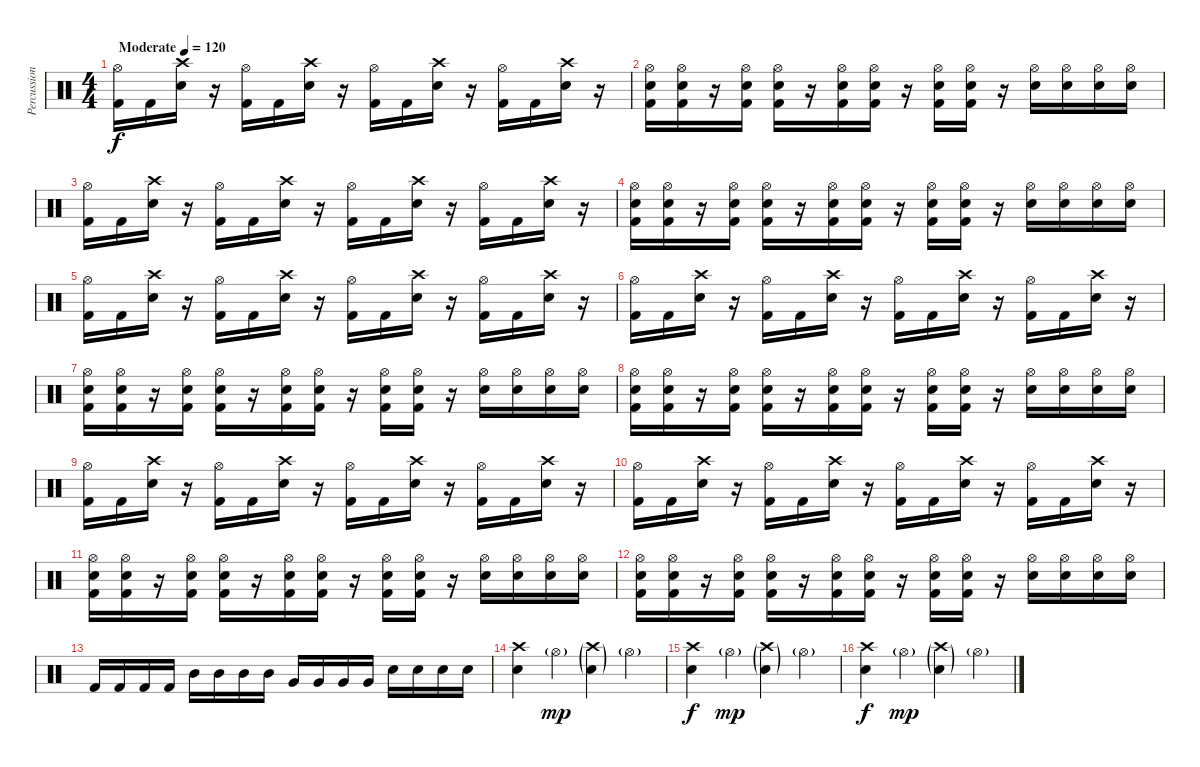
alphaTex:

\track ("Percussion" "Percussion") {instrument percussion}
\staff {score}
\articulation defaults
\ts (4 4)
\tempo (120 "Moderate")
\clef neutral
\ks c
("Hi-Hat (open)" "Kick (hit) 2").16{dy f} "Kick (hit) 2".16 ("Crash high (hit)" "Electric Snare (hit)").16 r.16 ("Hi-Hat (open)" "Kick (hit) 2").16 "Kick (hit) 2".16 ("Crash high (hit)" "Electric Snare (hit)").16 r.16 ("Hi-Hat (open)" "Kick (hit) 2").16 "Kick (hit) 2".16 ("Crash high (hit)" "Electric Snare (hit)").16 r.16 ("Hi-Hat (open)" "Kick (hit) 2").16 "Kick (hit) 2".16 ("Crash high (hit)" "Electric Snare (hit)").16 r.16 |
("Hi-Hat (open)" "Electric Snare (hit)" "Kick (hit) 2").16 ("Hi-Hat (open)" "Electric Snare (hit)" "Kick (hit) 2").16 r.16 ("Hi-Hat (open)" "Electric Snare (hit)" "Kick (hit) 2").16 ("Hi-Hat (open)" "Electric Snare (hit)" "Kick (hit) 2").16 r.16 ("Hi-Hat (open)" "Electric Snare (hit)" "Kick (hit) 2").16 ("Hi-Hat (open)" "Electric Snare (hit)" "Kick (hit) 2").16 r.16 ("Hi-Hat (open)" "Electric Snare (hit)" "Kick (hit) 2").16 ("Hi-Hat (open)" "Electric Snare (hit)" "Kick (hit) 2").16 r.16 ("Hi-Hat (open)" "Electric Snare (hit)").16 ("Hi-Hat (open)" "Electric Snare (hit)").16 ("Hi-Hat (open)" "Electric Snare (hit)").16 ("Hi-Hat (open)" "Electric Snare (hit)").16 |
("Hi-Hat (open)" "Kick (hit) 2").16 "Kick (hit) 2".16 ("Crash high (hit)" "Electric Snare (hit)").16 r.16 ("Hi-Hat (open)" "Kick (hit) 2").16 "Kick (hit) 2".16 ("Crash high (hit)" "Electric Snare (hit)").16 r.16 ("Hi-Hat (open)" "Kick (hit) 2").16 "Kick (hit) 2".16 ("Crash high (hit)" "Electric Snare (hit)").16 r.16 ("Hi-Hat (open)" "Kick (hit) 2").16 "Kick (hit) 2".16 ("Crash high (hit)" "Electric Snare (hit)").16 r.16 |
("Hi-Hat (open)" "Electric Snare (hit)" "Kick (hit) 2").16 ("Hi-Hat (open)" "Electric Snare (hit)" "Kick (hit) 2").16 r.16 ("Hi-Hat (open)" "Electric Snare (hit)" "Kick (hit) 2").16 ("Hi-Hat (open)" "Electric Snare (hit)" "Kick (hit) 2").16 r.16 ("Hi-Hat (open)" "Electric Snare (hit)" "Kick (hit) 2").16 ("Hi-Hat (open)" "Electric Snare (hit)" "Kick (hit) 2").16 r.16 ("Hi-Hat (open)" "Electric Snare (hit)" "Kick (hit) 2").16 ("Hi-Hat (open)" "Electric Snare (hit)" "Kick (hit) 2").16 r.16 ("Hi-Hat (open)" "Electric Snare (hit)").16 ("Hi-Hat (open)" "Electric Snare (hit)").16 ("Hi-Hat (open)" "Electric Snare (hit)").16 ("Hi-Hat (open)" "Electric Snare (hit)").16 |
("Hi-Hat (open)" "Kick (hit) 2").16 "Kick (hit) 2".16 ("Crash high (hit)" "Electric Snare (hit)").16 r.16 ("Hi-Hat (open)" "Kick (hit) 2").16 "Kick (hit) 2".16 ("Crash high (hit)" "Electric Snare (hit)").16 r.16 ("Hi-Hat (open)" "Kick (hit) 2").16 "Kick (hit) 2".16 ("Crash high (hit)" "Electric Snare (hit)").16 r.16 ("Hi-Hat (open)" "Kick (hit) 2").16 "Kick (hit) 2".16 ("Crash high (hit)" "Electric Snare (hit)").16 r.16 |
("Hi-Hat (open)" "Kick (hit) 2").16 "Kick (hit) 2".16 ("Crash high (hit)" "Electric Snare (hit)").16 r.16 ("Hi-Hat (open)" "Kick (hit) 2").16 "Kick (hit) 2".16 ("Crash high (hit)" "Electric Snare (hit)").16 r.16 ("Hi-Hat (open)" "Kick (hit) 2").16 "Kick (hit) 2".16 ("Crash high (hit)" "Electric Snare (hit)").16 r.16 ("Hi-Hat (open)" "Kick (hit) 2").16 "Kick (hit) 2".16 ("Crash high (hit)" "Electric Snare (hit)").16 r.16 |
("Hi-Hat (open)" "Electric Snare (hit)" "Kick (hit) 2").16 ("Hi-Hat (open)" "Electric Snare (hit)" "Kick (hit) 2").16 r.16 ("Hi-Hat (open)" "Electric Snare (hit)" "Kick (hit) 2").16 ("Hi-Hat (open)" "Electric Snare (hit)" "Kick (hit) 2").16 r.16 ("Hi-Hat (open)" "Electric Snare (hit)" "Kick (hit) 2").16 ("Hi-Hat (open)" "Electric Snare (hit)" "Kick (hit) 2").16 r.16 ("Hi-Hat (open)" "Electric Snare (hit)" "Kick (hit) 2").16 ("Hi-Hat (open)" "Electric Snare (hit)" "Kick (hit) 2").16 r.16 ("Hi-Hat (open)" "Electric Snare (hit)").16 ("Hi-Hat (open)" "Electric Snare (hit)").16 ("Hi-Hat (open)" "Electric Snare (hit)").16 ("Hi-Hat (open)" "Electric Snare (hit)").16 |
("Hi-Hat (open)" "Electric Snare (hit)" "Kick (hit) 2").16 ("Hi-Hat (open)" "Electric Snare (hit)" "Kick (hit) 2").16 r.16 ("Hi-Hat (open)" "Electric Snare (hit)" "Kick (hit) 2").16 ("Hi-Hat (open)" "Electric Snare (hit)" "Kick (hit) 2").16 r.16 ("Hi-Hat (open)" "Electric Snare (hit)" "Kick (hit) 2").16 ("Hi-Hat (open)" "Electric Snare (hit)" "Kick (hit) 2").16 r.16 ("Hi-Hat (open)" "Electric Snare (hit)" "Kick (hit) 2").16 ("Hi-Hat (open)" "Electric Snare (hit)" "Kick (hit) 2").16 r.16 ("Hi-Hat (open)" "Electric Snare (hit)").16 ("Hi-Hat (open)" "Electric Snare (hit)").16 ("Hi-Hat (open)" "Electric Snare (hit)").16 ("Hi-Hat (open)" "Electric Snare (hit)").16 |
("Hi-Hat (open)" "Kick (hit) 2").16 "Kick (hit) 2".16 ("Crash high (hit)" "Electric Snare (hit)").16 r.16 ("Hi-Hat (open)" "Kick (hit) 2").16 "Kick (hit) 2".16 ("Crash high (hit)" "Electric Snare (hit)").16 r.16 ("Hi-Hat (open)" "Kick (hit) 2").16 "Kick (hit) 2".16 ("Crash high (hit)" "Electric Snare (hit)").16 r.16 ("Hi-Hat (open)" "Kick (hit) 2").16 "Kick (hit) 2".16 ("Crash high (hit)" "Electric Snare (hit)").16 r.16 |
("Hi-Hat (open)" "Kick (hit) 2").16 "Kick (hit) 2".16 ("Crash high (hit)" "Electric Snare (hit)").16 r.16 ("Hi-Hat (open)" "Kick (hit) 2").16 "Kick (hit) 2".16 ("Crash high (hit)" "Electric Snare (hit)").16 r.16 ("Hi-Hat (open)" "Kick (hit) 2").16 "Kick (hit) 2".16 ("Crash high (hit)" "Electric Snare (hit)").16 r.16 ("Hi-Hat (open)" "Kick (hit) 2").16 "Kick (hit) 2".16 ("Crash high (hit)" "Electric Snare (hit)").16 r.16 |
("Hi-Hat (open)" "Electric Snare (hit)" "Kick (hit) 2").16 ("Hi-Hat (open)" "Electric Snare (hit)" "Kick (hit) 2").16 r.16 ("Hi-Hat (open)" "Electric Snare (hit)" "Kick (hit) 2").16 ("Hi-Hat (open)" "Electric Snare (hit)" "Kick (hit) 2").16 r.16 ("Hi-Hat (open)" "Electric Snare (hit)" "Kick (hit) 2").16 ("Hi-Hat (open)" "Electric Snare (hit)" "Kick (hit) 2").16 r.16 ("Hi-Hat (open)" "Electric Snare (hit)" "Kick (hit) 2").16 ("Hi-Hat (open)" "Electric Snare (hit)" "Kick (hit) 2").16 r.16 ("Hi-Hat (open)" "Electric Snare (hit)").16 ("Hi-Hat (open)" "Electric Snare (hit)").16 ("Hi-Hat (open)" "Electric Snare (hit)").16 ("Hi-Hat (open)" "Electric Snare (hit)").16 |
("Hi-Hat (open)" "Electric Snare (hit)" "Kick (hit) 2").16 ("Hi-Hat (open)" "Electric Snare (hit)" "Kick (hit) 2").16 r.16 ("Hi-Hat (open)" "Electric Snare (hit)" "Kick (hit) 2").16 ("Hi-Hat (open)" "Electric Snare (hit)" "Kick (hit) 2").16 r.16 ("Hi-Hat (open)" "Electric Snare (hit)" "Kick (hit) 2").16 ("Hi-Hat (open)" "Electric Snare (hit)" "Kick (hit) 2").16 r.16 ("Hi-Hat (open)" "Electric Snare (hit)" "Kick (hit) 2").16 ("Hi-Hat (open)" "Electric Snare (hit)" "Kick (hit) 2").16 r.16 ("Hi-Hat (open)" "Electric Snare (hit)").16 ("Hi-Hat (open)" "Electric Snare (hit)").16 ("Hi-Hat (open)" "Electric Snare (hit)").16 ("Hi-Hat (open)" "Electric Snare (hit)").16 |
"Kick (hit) 2".16 "Kick (hit) 2".16 "Kick (hit) 2".16 "Kick (hit) 2".16 "Mid Tom (hit)".16 "Mid Tom (hit)".16 "Mid Tom (hit)".16 "Mid Tom (hit)".16 "Very Low Tom (hit)".16 "Very Low Tom (hit)".16 "Very Low Tom (hit)".16 "Very Low Tom (hit)".16 "Electric Snare (hit)".16 "Electric Snare (hit)".16 "Electric Snare (hit)".16 "Electric Snare (hit)".16 |
("Crash high (hit)" "Electric Snare (hit)").4 "Hi-Hat (open)"{g}.4{dy mp} ("Crash high (hit)"{g} "Electric Snare (hit)"{g}).4 "Hi-Hat (open)"{g}.4 |
("Crash high (hit)" "Electric Snare (hit)").4{dy f} "Hi-Hat (open)"{g}.4{dy mp} ("Crash high (hit)"{g} "Electric Snare (hit)"{g}).4 "Hi-Hat (open)"{g}.4 |
("Crash high (hit)" "Electric Snare (hit)").4{dy f} "Hi-Hat (open)"{g}.4{dy mp} ("Crash high (hit)"{g} "Electric Snare (hit)"{g}).4 "Hi-Hat (open)"{g}.4
